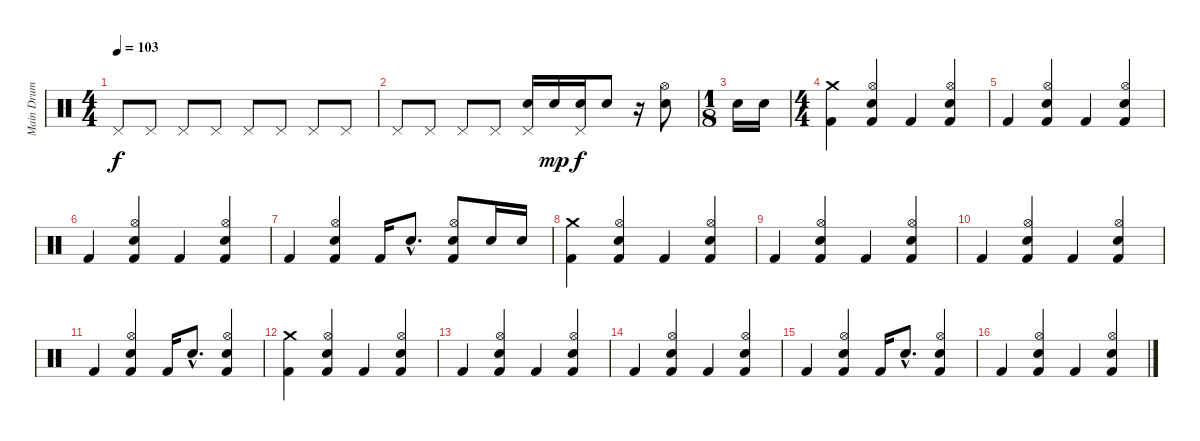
\track ("Main Drum" "Main Drum") {instrument percussion}
\staff {score}
\articulation defaults
\ts (4 4)
\tempo 103
\clef neutral
\ks c "Pedal Hi-Hat (hit)".8{dy f volume 10} "Pedal Hi-Hat (hit)".8 "Pedal Hi-Hat (hit)".8 "Pedal Hi-Hat (hit)".8 "Pedal Hi-Hat (hit)".8 "Pedal Hi-Hat (hit)".8 "Pedal Hi-Hat (hit)".8 "Pedal Hi-Hat (hit)".8
|
"Pedal Hi-Hat (hit)".8 "Pedal Hi-Hat (hit)".8 "Pedal Hi-Hat (hit)".8 "Pedal Hi-Hat (hit)".8 ("Pedal Hi-Hat (hit)" "Electric Snare (hit)").16{volume 16} "Electric Snare (hit)".16{dy mp} ("Pedal Hi-Hat (hit)" "Electric Snare (hit)").16{dy f} "Electric Snare (hit)".8 r.16 ("Hi-Hat (open)" "Electric Snare (hit)").8 |
\ts (1 8)
"Electric Snare (hit)".16 "Electric Snare (hit)".16 |
\ts (4 4)
("Crash medium (hit)" "Kick (hit) 2").4 ("Hi-Hat (open)" "Electric Snare (hit)" "Kick (hit) 2").4 "Kick (hit) 2".4 ("Hi-Hat (open)" "Electric Snare (hit)" "Kick (hit) 2").4 |
"Kick (hit) 2".4 ("Hi-Hat (open)" "Electric Snare (hit)" "Kick (hit) 2").4 "Kick (hit) 2".4 ("Hi-Hat (open)" "Electric Snare (hit)" "Kick (hit) 2").4 |
"Kick (hit) 2".4 ("Hi-Hat (open)" "Electric Snare (hit)" "Kick (hit) 2").4 "Kick (hit) 2".4 ("Hi-Hat (open)" "Electric Snare (hit)" "Kick (hit) 2").4 |
"Kick (hit) 2".4 ("Hi-Hat (open)" "Electric Snare (hit)" "Kick (hit) 2").4 "Kick (hit) 2".16 "Electric Snare (hit)"{hac}.8{d} ("Hi-Hat (open)" "Electric Snare (hit)" "Kick (hit) 2").8 "Electric Snare (hit)".16 "Electric Snare (hit)".16 |
("Crash medium (hit)" "Kick (hit) 2").4 ("Hi-Hat (open)" "Electric Snare (hit)" "Kick (hit) 2").4 "Kick (hit) 2".4 ("Hi-Hat (open)" "Electric Snare (hit)" "Kick (hit) 2").4 |
"Kick (hit) 2".4 ("Hi-Hat (open)" "Electric Snare (hit)" "Kick (hit) 2").4 "Kick (hit) 2".4 ("Hi-Hat (open)" "Electric Snare (hit)" "Kick (hit) 2").4 |
"Kick (hit) 2".4 ("Hi-Hat (open)" "Electric Snare (hit)" "Kick (hit) 2").4 "Kick (hit) 2".4 ("Hi-Hat (open)" "Electric Snare (hit)" "Kick (hit) 2").4 |
"Kick (hit) 2".4 ("Hi-Hat (open)" "Electric Snare (hit)" "Kick (hit) 2").4 "Kick (hit) 2".16 "Electric Snare (hit)"{hac}.8{d} ("Hi-Hat (open)" "Electric Snare (hit)" "Kick (hit) 2").4 |
("Crash medium (hit)" "Kick (hit) 2").4 ("Hi-Hat (open)" "Electric Snare (hit)" "Kick (hit) 2").4 "Kick (hit) 2".4 ("Hi-Hat (open)" "Electric Snare (hit)" "Kick (hit) 2").4 |
"Kick (hit) 2".4 ("Hi-Hat (open)" "Electric Snare (hit)" "Kick (hit) 2").4 "Kick (hit) 2".4 ("Hi-Hat (open)" "Electric Snare (hit)" "Kick (hit) 2").4 |
"Kick (hit) 2".4 ("Hi-Hat (open)" "Electric Snare (hit)" "Kick (hit) 2").4 "Kick (hit) 2".4 ("Hi-Hat (open)" "Electric Snare (hit)" "Kick (hit) 2").4 |
"Kick (hit) 2".4 ("Hi-Hat (open)" "Electric Snare (hit)" "Kick (hit) 2").4 "Kick (hit) 2".16 "Electric Snare (hit)"{hac}.8{d} ("Hi-Hat (open)" "Electric Snare (hit)" "Kick (hit) 2").4 |
"Kick (hit) 2".4 ("Hi-Hat (open)" "Electric Snare (hit)" "Kick (hit) 2").4 "Kick (hit) 2".4 ("Hi-Hat (open)" "Electric Snare (hit)" "Kick (hit) 2").4
